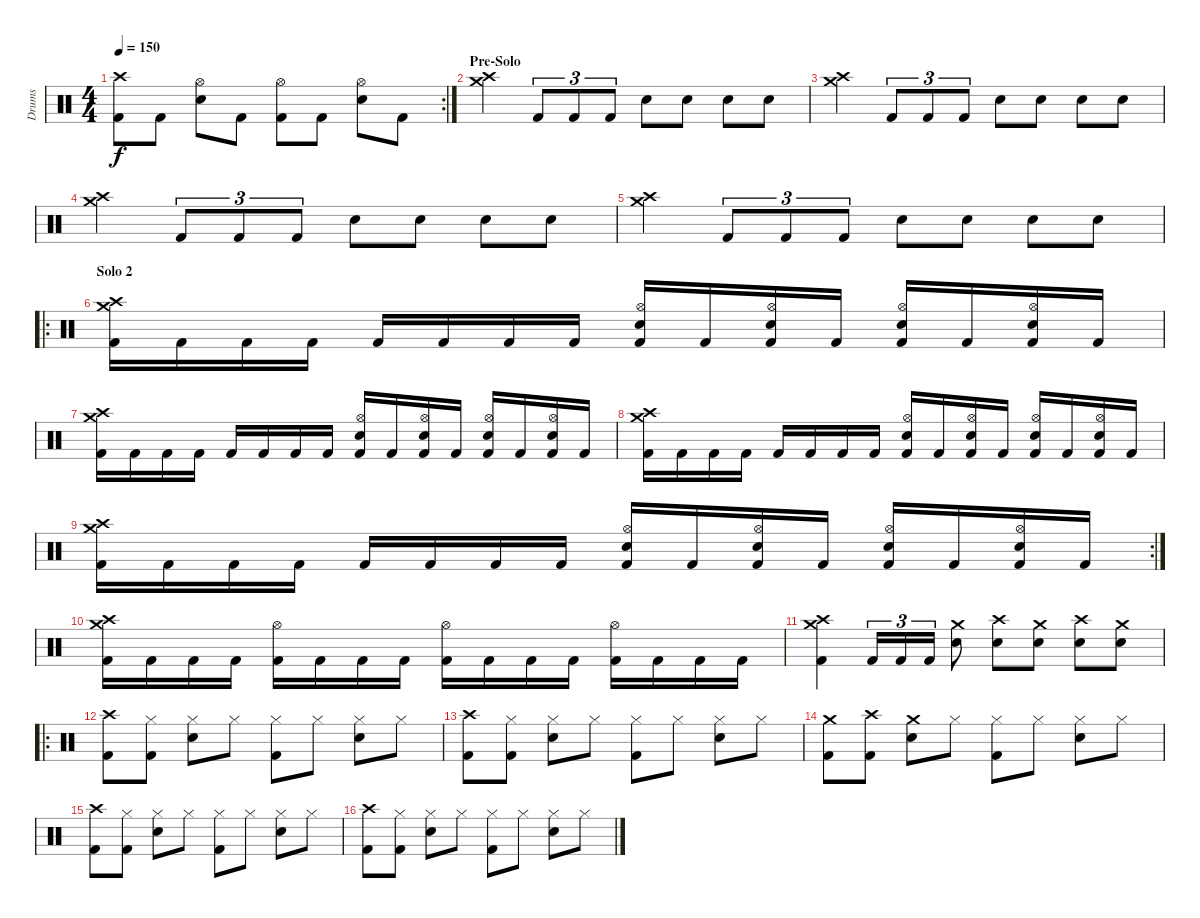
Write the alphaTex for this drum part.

\track ("Drums" "Drums") {instrument percussion}
\staff {score}
\articulation defaults
\rc 2
\ts (4 4)
\tempo 150
\clef neutral
\ks c
("Crash high (hit)" "Kick (hit) 2").8{dy f} "Kick (hit) 2".8 ("Hi-Hat (open)" "Snare (hit) 2").8 "Kick (hit) 2".8 ("Hi-Hat (open)" "Kick (hit) 2").8 "Kick (hit) 2".8 ("Hi-Hat (open)" "Snare (hit) 2").8 "Kick (hit) 2".8 |
\section ("" "Pre-Solo")
("Crash high (hit)" "Crash medium (hit)").4 "Kick (hit) 2".8{tu (3 2)} "Kick (hit) 2".8{tu (3 2)} "Kick (hit) 2".8{tu (3 2)} "Snare (hit) 2".8 "Snare (hit) 2".8 "Snare (hit) 2".8 "Snare (hit) 2".8 |
("Crash high (hit)" "Crash medium (hit)").4 "Kick (hit) 2".8{tu (3 2)} "Kick (hit) 2".8{tu (3 2)} "Kick (hit) 2".8{tu (3 2)} "Snare (hit) 2".8 "Snare (hit) 2".8 "Snare (hit) 2".8 "Snare (hit) 2".8 |
("Crash high (hit)" "Crash medium (hit)").4 "Kick (hit) 2".8{tu (3 2)} "Kick (hit) 2".8{tu (3 2)} "Kick (hit) 2".8{tu (3 2)} "Snare (hit) 2".8 "Snare (hit) 2".8 "Snare (hit) 2".8 "Snare (hit) 2".8 |
("Crash high (hit)" "Crash medium (hit)").4 "Kick (hit) 2".8{tu (3 2)} "Kick (hit) 2".8{tu (3 2)} "Kick (hit) 2".8{tu (3 2)} "Snare (hit) 2".8 "Snare (hit) 2".8 "Snare (hit) 2".8 "Snare (hit) 2".8 |
\ro
\section ("" "Solo 2")
("Crash high (hit)" "Crash medium (hit)" "Kick (hit) 2").16 "Kick (hit) 2".16 "Kick (hit) 2".16 "Kick (hit) 2".16 "Kick (hit) 2".16 "Kick (hit) 2".16 "Kick (hit) 2".16 "Kick (hit) 2".16 ("Hi-Hat (open)" "Snare (hit) 2" "Kick (hit) 2").16 "Kick (hit) 2".16 ("Hi-Hat (open)" "Snare (hit) 2" "Kick (hit) 2").16 "Kick (hit) 2".16 ("Hi-Hat (open)" "Snare (hit) 2" "Kick (hit) 2").16 "Kick (hit) 2".16 ("Hi-Hat (open)" "Snare (hit) 2" "Kick (hit) 2").16 "Kick (hit) 2".16 |
("Crash high (hit)" "Crash medium (hit)" "Kick (hit) 2").16 "Kick (hit) 2".16 "Kick (hit) 2".16 "Kick (hit) 2".16 "Kick (hit) 2".16 "Kick (hit) 2".16 "Kick (hit) 2".16 "Kick (hit) 2".16 ("Hi-Hat (open)" "Snare (hit) 2" "Kick (hit) 2").16 "Kick (hit) 2".16 ("Hi-Hat (open)" "Snare (hit) 2" "Kick (hit) 2").16 "Kick (hit) 2".16 ("Hi-Hat (open)" "Snare (hit) 2" "Kick (hit) 2").16 "Kick (hit) 2".16 ("Hi-Hat (open)" "Snare (hit) 2" "Kick (hit) 2").16 "Kick (hit) 2".16 |
("Crash high (hit)" "Crash medium (hit)" "Kick (hit) 2").16 "Kick (hit) 2".16 "Kick (hit) 2".16 "Kick (hit) 2".16 "Kick (hit) 2".16 "Kick (hit) 2".16 "Kick (hit) 2".16 "Kick (hit) 2".16 ("Hi-Hat (open)" "Snare (hit) 2" "Kick (hit) 2").16 "Kick (hit) 2".16 ("Hi-Hat (open)" "Snare (hit) 2" "Kick (hit) 2").16 "Kick (hit) 2".16 ("Hi-Hat (open)" "Snare (hit) 2" "Kick (hit) 2").16 "Kick (hit) 2".16 ("Hi-Hat (open)" "Snare (hit) 2" "Kick (hit) 2").16 "Kick (hit) 2".16 |
\rc 2
("Crash high (hit)" "Crash medium (hit)" "Kick (hit) 2").16 "Kick (hit) 2".16 "Kick (hit) 2".16 "Kick (hit) 2".16 "Kick (hit) 2".16 "Kick (hit) 2".16 "Kick (hit) 2".16 "Kick (hit) 2".16 ("Hi-Hat (open)" "Snare (hit) 2" "Kick (hit) 2").16 "Kick (hit) 2".16 ("Hi-Hat (open)" "Snare (hit) 2" "Kick (hit) 2").16 "Kick (hit) 2".16 ("Hi-Hat (open)" "Snare (hit) 2" "Kick (hit) 2").16 "Kick (hit) 2".16 ("Hi-Hat (open)" "Snare (hit) 2" "Kick (hit) 2").16 "Kick (hit) 2".16 |
("Crash high (hit)" "Crash medium (hit)" "Kick (hit) 2").16 "Kick (hit) 2".16 "Kick (hit) 2".16 "Kick (hit) 2".16 ("Hi-Hat (open)" "Kick (hit) 2").16 "Kick (hit) 2".16 "Kick (hit) 2".16 "Kick (hit) 2".16 ("Hi-Hat (open)" "Kick (hit) 2").16 "Kick (hit) 2".16 "Kick (hit) 2".16 "Kick (hit) 2".16 ("Hi-Hat (open)" "Kick (hit) 2").16 "Kick (hit) 2".16 "Kick (hit) 2".16 "Kick (hit) 2".16 |
("Crash high (hit)" "Crash medium (hit)" "Kick (hit) 2").4 "Kick (hit) 2".16{tu (3 2)} "Kick (hit) 2".16{tu (3 2)} "Kick (hit) 2".16{tu (3 2)} ("Crash medium (hit)" "Snare (hit) 2").8 ("Crash high (hit)" "Snare (hit) 2").8 ("Crash medium (hit)" "Snare (hit) 2").8 ("Crash high (hit)" "Snare (hit) 2").8 ("Crash medium (hit)" "Snare (hit) 2").8 |
\ro
("Crash high (hit)" "Kick (hit) 2").8 ("Hi-Hat (closed)" "Kick (hit) 2").8 ("Hi-Hat (closed)" "Snare (hit) 2").8 "Hi-Hat (closed)".8 ("Hi-Hat (closed)" "Kick (hit) 2").8 "Hi-Hat (closed)".8 ("Hi-Hat (closed)" "Snare (hit) 2").8 "Hi-Hat (closed)".8 |
("Crash high (hit)" "Kick (hit) 2").8 ("Hi-Hat (closed)" "Kick (hit) 2").8 ("Hi-Hat (closed)" "Snare (hit) 2").8 "Hi-Hat (closed)".8 ("Hi-Hat (closed)" "Kick (hit) 2").8 "Hi-Hat (closed)".8 ("Hi-Hat (closed)" "Snare (hit) 2").8 "Hi-Hat (closed)".8 |
("Crash medium (hit)" "Kick (hit) 2").8 ("Crash high (hit)" "Kick (hit) 2").8 ("Crash medium (hit)" "Snare (hit) 2").8 "Hi-Hat (closed)".8 ("Hi-Hat (closed)" "Kick (hit) 2").8 "Hi-Hat (closed)".8 ("Hi-Hat (closed)" "Snare (hit) 2").8 "Hi-Hat (closed)".8 |
("Crash high (hit)" "Kick (hit) 2").8 ("Hi-Hat (closed)" "Kick (hit) 2").8 ("Hi-Hat (closed)" "Snare (hit) 2").8 "Hi-Hat (closed)".8 ("Hi-Hat (closed)" "Kick (hit) 2").8 "Hi-Hat (closed)".8 ("Hi-Hat (closed)" "Snare (hit) 2").8 "Hi-Hat (closed)".8 |
("Crash high (hit)" "Kick (hit) 2").8 ("Hi-Hat (closed)" "Kick (hit) 2").8 ("Hi-Hat (closed)" "Snare (hit) 2").8 "Hi-Hat (closed)".8 ("Hi-Hat (closed)" "Kick (hit) 2").8 "Hi-Hat (closed)".8 ("Hi-Hat (closed)" "Snare (hit) 2").8 "Hi-Hat (closed)".8
